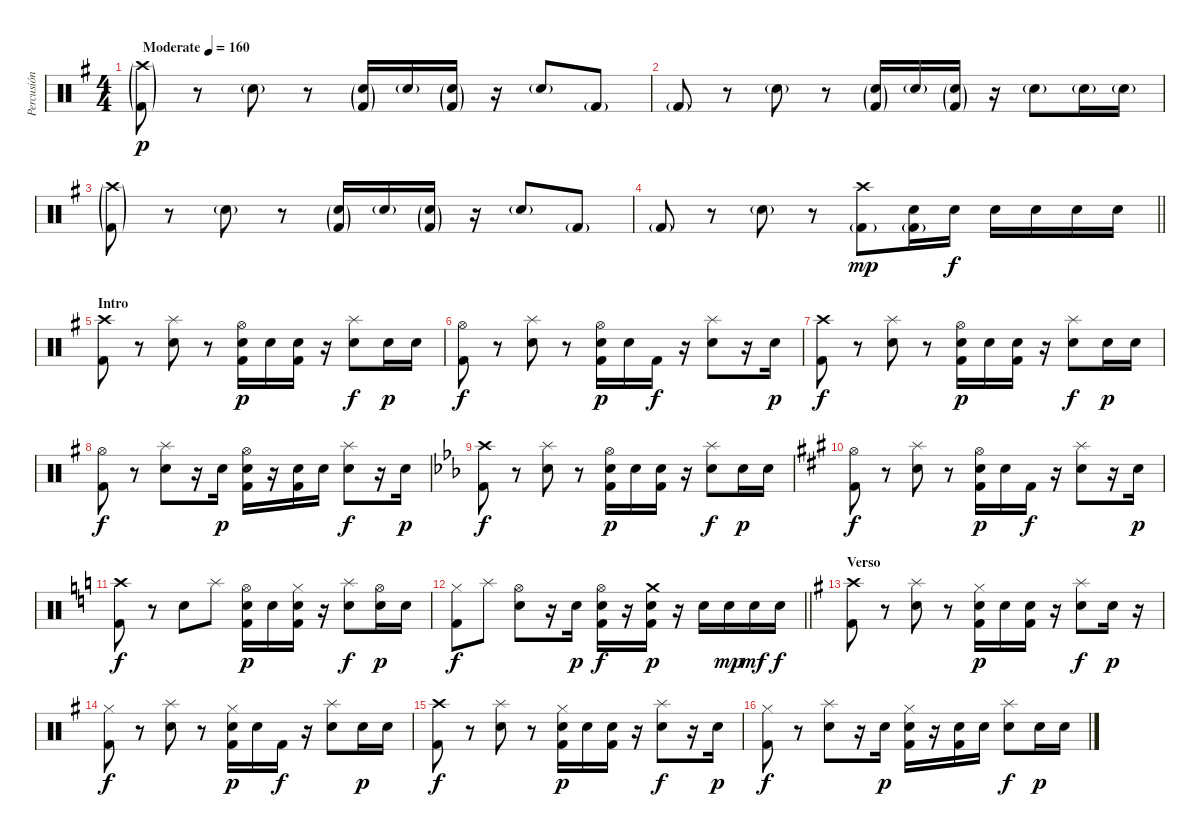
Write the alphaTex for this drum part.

\track ("Percusión" "Percusión") {instrument percussion}
\staff {score}
\articulation defaults
\ts (4 4)
\tempo (160 "Moderate")
\clef neutral
\ks g
("Crash high (hit)"{g} "Kick (hit) 2"{g}).8{dy p} r.8 "Electric Snare (hit)"{g}.8 r.8 ("Electric Snare (hit)"{g} "Kick (hit) 2"{g}).16 "Electric Snare (hit)"{g}.16 ("Electric Snare (hit)"{g} "Kick (hit) 2"{g}).16 r.16 "Electric Snare (hit)"{g}.8 "Kick (hit) 2"{g}.8 |
"Kick (hit) 2"{g}.8 r.8 "Electric Snare (hit)"{g}.8 r.8 ("Electric Snare (hit)"{g} "Kick (hit) 2"{g}).16 "Electric Snare (hit)"{g}.16 ("Electric Snare (hit)"{g} "Kick (hit) 2"{g}).16 r.16 "Electric Snare (hit)"{g}.8 "Hand Clap (hit)"{g}.16 "Electric Snare (hit)"{g}.16 |
("Crash high (hit)"{g} "Kick (hit) 2"{g}).8 r.8 "Electric Snare (hit)"{g}.8 r.8 ("Electric Snare (hit)"{g} "Kick (hit) 2"{g}).16 "Electric Snare (hit)"{g}.16 ("Electric Snare (hit)"{g} "Kick (hit) 2"{g}).16 r.16 "Electric Snare (hit)"{g}.8 "Kick (hit) 2"{g}.8 |
\barLineRight lightlight "Kick (hit) 2"{g}.8
r.8 "Electric Snare (hit)"{g}.8 r.8 ("Crash high (hit)" "Kick (hit) 2"{g}).8{dy mp} ("Electric Snare (hit)" "Kick (hit) 2"{g}).16 "Electric Snare (hit)".16{dy f} "Electric Snare (hit)".16 "Electric Snare (hit)".16 "Electric Snare (hit)".16 "Electric Snare (hit)".16 |
\section ("" "Intro")
("Crash high (hit)" "Kick (hit) 2").8 r.8 ("Splash (hit)" "Electric Snare (hit)").8 r.8 ("Hi-Hat (open)" "Electric Snare (hit)" "Kick (hit) 2").16{dy p} "Electric Snare (hit)".16 ("Electric Snare (hit)" "Kick (hit) 2").16 r.16 ("Splash (hit)" "Electric Snare (hit)").8{dy f} "Electric Snare (hit)".16{dy p} "Electric Snare (hit)".16 |
("Hi-Hat (open)" "Kick (hit) 2").8{dy f} r.8 ("Splash (hit)" "Electric Snare (hit)").8 r.8 ("Hi-Hat (open)" "Electric Snare (hit)" "Kick (hit) 2").16{dy p} "Electric Snare (hit)".16 "Kick (hit) 2".16{dy f} r.16 ("Splash (hit)" "Electric Snare (hit)").8 r.16 "Electric Snare (hit)".16{dy p} |
("Crash high (hit)" "Kick (hit) 2").8{dy f} r.8 ("Splash (hit)" "Electric Snare (hit)").8 r.8 ("Hi-Hat (open)" "Electric Snare (hit)" "Kick (hit) 2").16{dy p} "Electric Snare (hit)".16 ("Electric Snare (hit)" "Kick (hit) 2").16 r.16 ("Splash (hit)" "Electric Snare (hit)").8{dy f} "Electric Snare (hit)".16{dy p} "Electric Snare (hit)".16 |
("Hi-Hat (open)" "Kick (hit) 2").8{dy f} r.8 ("Splash (hit)" "Electric Snare (hit)").8 r.16 "Electric Snare (hit)".16{dy p} ("Hi-Hat (open)" "Electric Snare (hit)" "Kick (hit) 2").16 r.16 ("Electric Snare (hit)" "Kick (hit) 2").16 "Electric Snare (hit)".16 ("Splash (hit)" "Electric Snare (hit)").8{dy f} r.16 "Electric Snare (hit)".16{dy p} |
\ks eb
("Crash high (hit)" "Kick (hit) 2").8{dy f} r.8 ("Splash (hit)" "Electric Snare (hit)").8 r.8 ("Hi-Hat (open)" "Electric Snare (hit)" "Kick (hit) 2").16{dy p} "Electric Snare (hit)".16 ("Electric Snare (hit)" "Kick (hit) 2").16 r.16 ("Splash (hit)" "Electric Snare (hit)").8{dy f} "Electric Snare (hit)".16{dy p} "Electric Snare (hit)".16 |
\ks a
("Hi-Hat (open)" "Kick (hit) 2").8{dy f} r.8 ("Splash (hit)" "Electric Snare (hit)").8 r.8 ("Hi-Hat (open)" "Electric Snare (hit)" "Kick (hit) 2").16{dy p} "Electric Snare (hit)".16 "Kick (hit) 2".16{dy f} r.16 ("Splash (hit)" "Electric Snare (hit)").8 r.16 "Electric Snare (hit)".16{dy p} |
\ks c
("Crash high (hit)" "Kick (hit) 2").8{dy f} r.8 "Electric Snare (hit)".8 "Splash (hit)".8 ("Hi-Hat (open)" "Electric Snare (hit)" "Kick (hit) 2").16{dy p} "Electric Snare (hit)".16 ("Hi-Hat (closed)" "Electric Snare (hit)" "Kick (hit) 2").16 r.16 ("Splash (hit)" "Electric Snare (hit)").8{dy f} ("Hi-Hat (open)" "Electric Snare (hit)").16{dy p} "Electric Snare (hit)".16 |
\barLineRight lightlight
("Hi-Hat (closed)" "Kick (hit) 2").8{dy f} "Splash (hit)".8 ("Hi-Hat (open)" "Electric Snare (hit)").8 r.16 "Electric Snare (hit)".16{dy p} ("Hi-Hat (open)" "Electric Snare (hit)" "Kick (hit) 2").16{dy f} r.16 ("Crash medium (hit)" "Electric Snare (hit)" "Kick (hit) 2").16{dy p} r.16 "Electric Snare (hit)".16 "Electric Snare (hit)".16{dy mp} "Electric Snare (hit)".16{dy mf} "Electric Snare (hit)".16{dy f} |
\section ("" "Verso")
\ks g
("Crash high (hit)" "Kick (hit) 2").8 r.8 ("Splash (hit)" "Electric Snare (hit)").8 r.8 ("Hi-Hat (closed)" "Electric Snare (hit)" "Kick (hit) 2").16{dy p} "Electric Snare (hit)".16 ("Electric Snare (hit)" "Kick (hit) 2").16 r.16 ("Splash (hit)" "Electric Snare (hit)").8{dy f} "Electric Snare (hit)".16{dy p} r.16 |
("Hi-Hat (closed)" "Kick (hit) 2").8{dy f} r.8 ("Splash (hit)" "Electric Snare (hit)").8 r.8 ("Hi-Hat (closed)" "Electric Snare (hit)" "Kick (hit) 2").16{dy p} "Electric Snare (hit)".16 "Kick (hit) 2".16{dy f} r.16 ("Splash (hit)" "Electric Snare (hit)").8 "Electric Snare (hit)".16{dy p} "Electric Snare (hit)".16 |
("Crash high (hit)" "Kick (hit) 2").8{dy f} r.8 ("Splash (hit)" "Electric Snare (hit)").8 r.8 ("Hi-Hat (closed)" "Electric Snare (hit)" "Kick (hit) 2").16{dy p} "Electric Snare (hit)".16 ("Electric Snare (hit)" "Kick (hit) 2").16 r.16 ("Splash (hit)" "Electric Snare (hit)").8{dy f} r.16 "Electric Snare (hit)".16{dy p} |
("Hi-Hat (closed)" "Kick (hit) 2").8{dy f} r.8 ("Splash (hit)" "Electric Snare (hit)").8 r.16 "Electric Snare (hit)".16{dy p} ("Hi-Hat (closed)" "Electric Snare (hit)" "Kick (hit) 2").16 r.16 ("Electric Snare (hit)" "Kick (hit) 2").16 "Electric Snare (hit)".16 ("Splash (hit)" "Electric Snare (hit)").8{dy f} "Electric Snare (hit)".16{dy p} "Electric Snare (hit)".16
